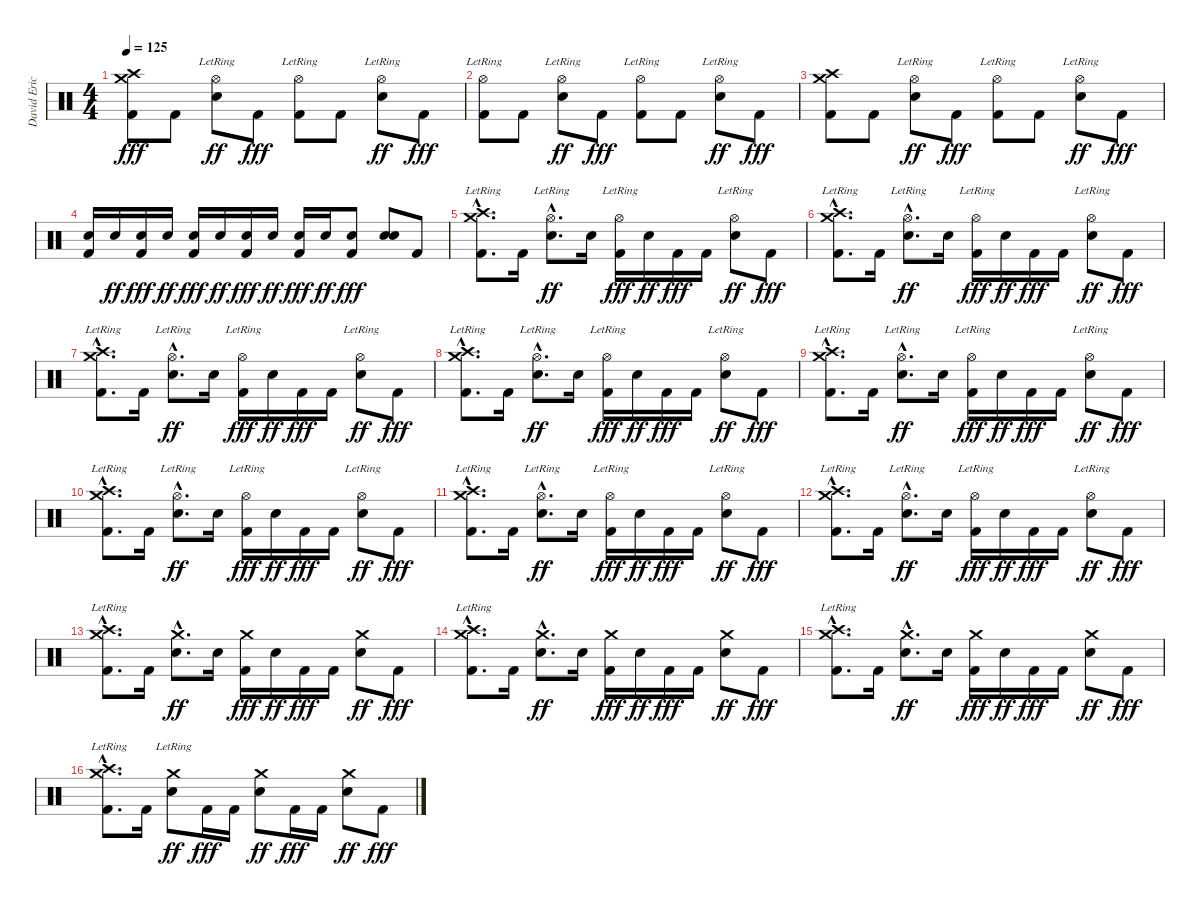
\track ("David Eric Grohl" "David Eric") {instrument percussion}
\staff {score}
\articulation defaults
\ts (4 4)
\tempo 125
\clef neutral
\ks c
("Crash high (hit)" "Crash medium (hit)" "Kick (hit) 2").8{dy fff} "Kick (hit) 2".8 ("Hi-Hat (open)"{lr} "Electric Snare (hit)").8{dy ff} "Kick (hit) 2".8{dy fff} ("Hi-Hat (open)"{lr} "Kick (hit) 2").8 "Kick (hit) 2".8 ("Hi-Hat (open)"{lr} "Electric Snare (hit)").8{dy ff} "Kick (hit) 2".8{dy fff} |
("Hi-Hat (open)"{lr} "Kick (hit) 2").8 "Kick (hit) 2".8 ("Hi-Hat (open)"{lr} "Electric Snare (hit)").8{dy ff} "Kick (hit) 2".8{dy fff} ("Hi-Hat (open)"{lr} "Kick (hit) 2").8 "Kick (hit) 2".8 ("Hi-Hat (open)"{lr} "Electric Snare (hit)").8{dy ff} "Kick (hit) 2".8{dy fff} |
("Crash high (hit)" "Crash medium (hit)" "Kick (hit) 2").8 "Kick (hit) 2".8 ("Hi-Hat (open)"{lr} "Electric Snare (hit)").8{dy ff} "Kick (hit) 2".8{dy fff} ("Hi-Hat (open)"{lr} "Kick (hit) 2").8 "Kick (hit) 2".8 ("Hi-Hat (open)"{lr} "Electric Snare (hit)").8{dy ff} "Kick (hit) 2".8{dy fff} |
("Electric Snare (hit)" "Kick (hit) 2").16 "Electric Snare (hit)".16{dy ff} ("Electric Snare (hit)" "Kick (hit) 2").16{dy fff} "Electric Snare (hit)".16{dy ff} ("Electric Snare (hit)" "Kick (hit) 2").16{dy fff} "Electric Snare (hit)".16{dy ff} ("Electric Snare (hit)" "Kick (hit) 2").16{dy fff} "Electric Snare (hit)".16{dy ff} ("Electric Snare (hit)" "Kick (hit) 2").16{dy fff} "Electric Snare (hit)".16{dy ff} ("Electric Snare (hit)" "Kick (hit) 2").8{dy fff} ("Electric Snare (hit)" "Electric Snare (hit)").8 "Kick (hit) 2".8 |
("Crash medium (hit)"{hac lr} "Crash high (hit)"{hac lr} "Kick (hit) 2"{hac}).8{d} "Kick (hit) 2".16 ("Hi-Hat (open)"{hac lr} "Electric Snare (hit)"{hac}).8{d dy ff} "Electric Snare (hit)".16 ("Hi-Hat (open)"{lr} "Kick (hit) 2").16{dy fff} "Electric Snare (hit)".16{dy ff} "Kick (hit) 2".16{dy fff} "Kick (hit) 2".16 ("Hi-Hat (open)"{lr} "Electric Snare (hit)").8{dy ff} "Kick (hit) 2".8{dy fff} |
("Crash medium (hit)"{hac lr} "Crash high (hit)"{hac lr} "Kick (hit) 2"{hac}).8{d} "Kick (hit) 2".16 ("Hi-Hat (open)"{hac lr} "Electric Snare (hit)"{hac}).8{d dy ff} "Electric Snare (hit)".16 ("Hi-Hat (open)"{lr} "Kick (hit) 2").16{dy fff} "Electric Snare (hit)".16{dy ff} "Kick (hit) 2".16{dy fff} "Kick (hit) 2".16 ("Hi-Hat (open)"{lr} "Electric Snare (hit)").8{dy ff} "Kick (hit) 2".8{dy fff} |
("Crash medium (hit)"{hac lr} "Crash high (hit)"{hac lr} "Kick (hit) 2"{hac}).8{d} "Kick (hit) 2".16 ("Hi-Hat (open)"{hac lr} "Electric Snare (hit)"{hac}).8{d dy ff} "Electric Snare (hit)".16 ("Hi-Hat (open)"{lr} "Kick (hit) 2").16{dy fff} "Electric Snare (hit)".16{dy ff} "Kick (hit) 2".16{dy fff} "Kick (hit) 2".16 ("Hi-Hat (open)"{lr} "Electric Snare (hit)").8{dy ff} "Kick (hit) 2".8{dy fff} |
("Crash medium (hit)"{hac lr} "Crash high (hit)"{hac lr} "Kick (hit) 2"{hac}).8{d} "Kick (hit) 2".16 ("Hi-Hat (open)"{hac lr} "Electric Snare (hit)"{hac}).8{d dy ff} "Electric Snare (hit)".16 ("Hi-Hat (open)"{lr} "Kick (hit) 2").16{dy fff} "Electric Snare (hit)".16{dy ff} "Kick (hit) 2".16{dy fff} "Kick (hit) 2".16 ("Hi-Hat (open)"{lr} "Electric Snare (hit)").8{dy ff} "Kick (hit) 2".8{dy fff} |
("Crash medium (hit)"{hac lr} "Crash high (hit)"{hac lr} "Kick (hit) 2"{hac}).8{d} "Kick (hit) 2".16 ("Hi-Hat (open)"{hac lr} "Electric Snare (hit)"{hac}).8{d dy ff} "Electric Snare (hit)".16 ("Hi-Hat (open)"{lr} "Kick (hit) 2").16{dy fff} "Electric Snare (hit)".16{dy ff} "Kick (hit) 2".16{dy fff} "Kick (hit) 2".16 ("Hi-Hat (open)"{lr} "Electric Snare (hit)").8{dy ff} "Kick (hit) 2".8{dy fff} |
("Crash medium (hit)"{hac lr} "Crash high (hit)"{hac lr} "Kick (hit) 2"{hac}).8{d} "Kick (hit) 2".16 ("Hi-Hat (open)"{hac lr} "Electric Snare (hit)"{hac}).8{d dy ff} "Electric Snare (hit)".16 ("Hi-Hat (open)"{lr} "Kick (hit) 2").16{dy fff} "Electric Snare (hit)".16{dy ff} "Kick (hit) 2".16{dy fff} "Kick (hit) 2".16 ("Hi-Hat (open)"{lr} "Electric Snare (hit)").8{dy ff} "Kick (hit) 2".8{dy fff} |
("Crash medium (hit)"{hac lr} "Crash high (hit)"{hac lr} "Kick (hit) 2"{hac}).8{d} "Kick (hit) 2".16 ("Hi-Hat (open)"{hac lr} "Electric Snare (hit)"{hac}).8{d dy ff} "Electric Snare (hit)".16 ("Hi-Hat (open)"{lr} "Kick (hit) 2").16{dy fff} "Electric Snare (hit)".16{dy ff} "Kick (hit) 2".16{dy fff} "Kick (hit) 2".16 ("Hi-Hat (open)"{lr} "Electric Snare (hit)").8{dy ff} "Kick (hit) 2".8{dy fff} |
("Crash medium (hit)"{hac lr} "Crash high (hit)"{hac lr} "Kick (hit) 2"{hac}).8{d} "Kick (hit) 2".16 ("Hi-Hat (open)"{hac lr} "Electric Snare (hit)"{hac}).8{d dy ff} "Electric Snare (hit)".16 ("Hi-Hat (open)"{lr} "Kick (hit) 2").16{dy fff} "Electric Snare (hit)".16{dy ff} "Kick (hit) 2".16{dy fff} "Kick (hit) 2".16 ("Hi-Hat (open)"{lr} "Electric Snare (hit)").8{dy ff} "Kick (hit) 2".8{dy fff} |
("Crash medium (hit)"{hac lr} "Crash high (hit)"{hac lr} "Kick (hit) 2"{hac}).8{d} "Kick (hit) 2".16 ("Crash medium (hit)"{hac} "Electric Snare (hit)"{hac}).8{d dy ff} "Electric Snare (hit)".16 ("Crash medium (hit)" "Kick (hit) 2").16{dy fff} "Electric Snare (hit)".16{dy ff} "Kick (hit) 2".16{dy fff} "Kick (hit) 2".16 ("Crash medium (hit)" "Electric Snare (hit)").8{dy ff} "Kick (hit) 2".8{dy fff} |
("Crash medium (hit)"{hac lr} "Crash high (hit)"{hac lr} "Kick (hit) 2"{hac}).8{d} "Kick (hit) 2".16 ("Crash medium (hit)"{hac} "Electric Snare (hit)"{hac}).8{d dy ff} "Electric Snare (hit)".16 ("Crash medium (hit)" "Kick (hit) 2").16{dy fff} "Electric Snare (hit)".16{dy ff} "Kick (hit) 2".16{dy fff} "Kick (hit) 2".16 ("Crash medium (hit)" "Electric Snare (hit)").8{dy ff} "Kick (hit) 2".8{dy fff} |
("Crash medium (hit)"{hac lr} "Crash high (hit)"{hac lr} "Kick (hit) 2"{hac}).8{d} "Kick (hit) 2".16 ("Crash medium (hit)"{hac} "Electric Snare (hit)"{hac}).8{d dy ff} "Electric Snare (hit)".16 ("Crash medium (hit)" "Kick (hit) 2").16{dy fff} "Electric Snare (hit)".16{dy ff} "Kick (hit) 2".16{dy fff} "Kick (hit) 2".16 ("Crash medium (hit)" "Electric Snare (hit)").8{dy ff} "Kick (hit) 2".8{dy fff} |
("Crash medium (hit)"{hac lr} "Crash high (hit)"{hac lr} "Kick (hit) 2"{hac}).8{d} "Kick (hit) 2".16 ("Crash medium (hit)"{lr} "Electric Snare (hit)").8{dy ff} "Kick (hit) 2".16{dy fff} "Kick (hit) 2".16 ("Crash medium (hit)" "Electric Snare (hit)").8{dy ff} "Kick (hit) 2".16{dy fff} "Kick (hit) 2".16 ("Crash medium (hit)" "Electric Snare (hit)").8{dy ff} "Kick (hit) 2".8{dy fff}
